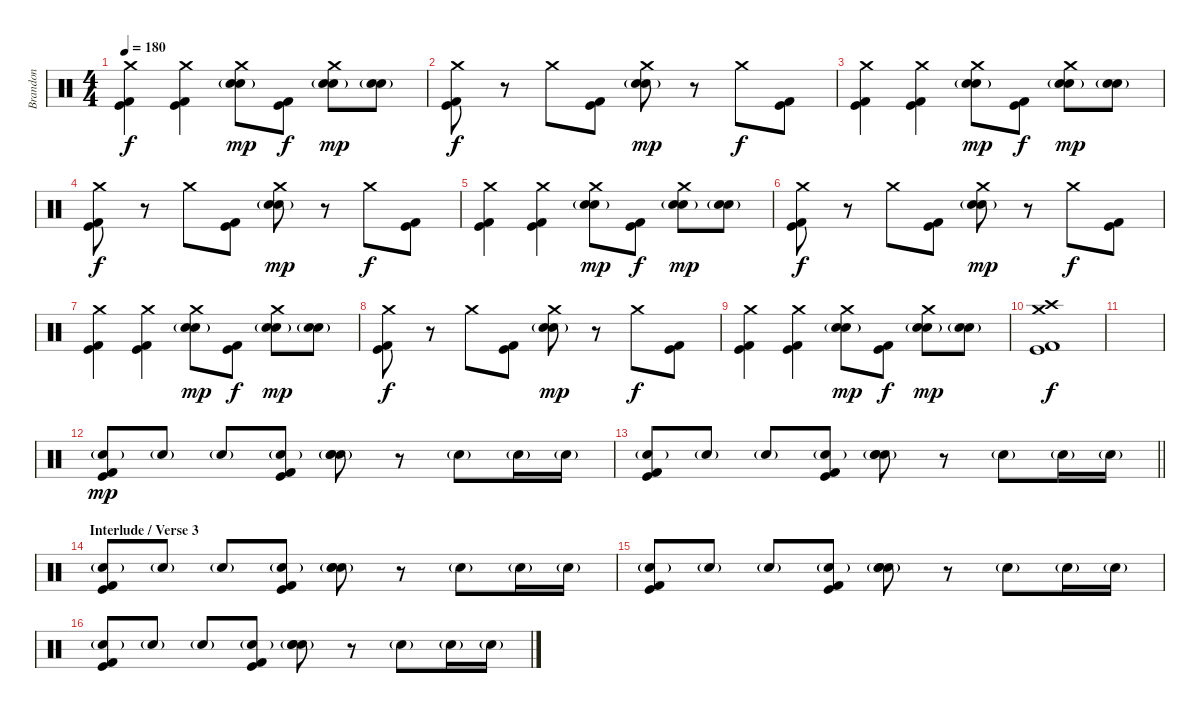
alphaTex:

\track ("Brandon" "Brandon") {instrument percussion}
\staff {score}
\articulation defaults
\ts (4 4)
\tempo 180
\clef neutral
\ks c
("Crash medium (hit)" "Kick (hit)" "Kick (hit) 2").4{dy f} ("Crash medium (hit)" "Kick (hit)" "Kick (hit) 2").4 ("Crash medium (hit)" "Snare (hit) 2" "Electric Snare (hit)"{g}).8{dy mp} ("Kick (hit)" "Kick (hit) 2").8{dy f} ("Crash medium (hit)" "Snare (hit) 2" "Electric Snare (hit)"{g}).8{dy mp} ("Snare (hit) 2" "Electric Snare (hit)"{g}).8 |
("Crash medium (hit)" "Kick (hit)" "Kick (hit) 2").8{dy f} r.8 "Crash medium (hit)".8 ("Kick (hit)" "Kick (hit) 2").8 ("Crash medium (hit)" "Snare (hit) 2" "Electric Snare (hit)"{g}).8{dy mp} r.8 "Crash medium (hit)".8{dy f} ("Kick (hit)" "Kick (hit) 2").8 |
("Crash medium (hit)" "Kick (hit)" "Kick (hit) 2").4 ("Crash medium (hit)" "Kick (hit)" "Kick (hit) 2").4 ("Crash medium (hit)" "Snare (hit) 2" "Electric Snare (hit)"{g}).8{dy mp} ("Kick (hit)" "Kick (hit) 2").8{dy f} ("Crash medium (hit)" "Snare (hit) 2" "Electric Snare (hit)"{g}).8{dy mp} ("Snare (hit) 2" "Electric Snare (hit)"{g}).8 |
("Crash medium (hit)" "Kick (hit)" "Kick (hit) 2").8{dy f} r.8 "Crash medium (hit)".8 ("Kick (hit)" "Kick (hit) 2").8 ("Crash medium (hit)" "Snare (hit) 2" "Electric Snare (hit)"{g}).8{dy mp} r.8 "Crash medium (hit)".8{dy f} ("Kick (hit)" "Kick (hit) 2").8 |
("Crash medium (hit)" "Kick (hit)" "Kick (hit) 2").4 ("Crash medium (hit)" "Kick (hit)" "Kick (hit) 2").4 ("Crash medium (hit)" "Snare (hit) 2" "Electric Snare (hit)"{g}).8{dy mp} ("Kick (hit)" "Kick (hit) 2").8{dy f} ("Crash medium (hit)" "Snare (hit) 2" "Electric Snare (hit)"{g}).8{dy mp} ("Snare (hit) 2" "Electric Snare (hit)"{g}).8 |
("Crash medium (hit)" "Kick (hit)" "Kick (hit) 2").8{dy f} r.8 "Crash medium (hit)".8 ("Kick (hit)" "Kick (hit) 2").8 ("Crash medium (hit)" "Snare (hit) 2" "Electric Snare (hit)"{g}).8{dy mp} r.8 "Crash medium (hit)".8{dy f} ("Kick (hit)" "Kick (hit) 2").8 |
("Crash medium (hit)" "Kick (hit)" "Kick (hit) 2").4 ("Crash medium (hit)" "Kick (hit)" "Kick (hit) 2").4 ("Crash medium (hit)" "Snare (hit) 2" "Electric Snare (hit)"{g}).8{dy mp} ("Kick (hit)" "Kick (hit) 2").8{dy f} ("Crash medium (hit)" "Snare (hit) 2" "Electric Snare (hit)"{g}).8{dy mp} ("Snare (hit) 2" "Electric Snare (hit)"{g}).8 |
("Crash medium (hit)" "Kick (hit)" "Kick (hit) 2").8{dy f} r.8 "Crash medium (hit)".8 ("Kick (hit)" "Kick (hit) 2").8 ("Crash medium (hit)" "Snare (hit) 2" "Electric Snare (hit)"{g}).8{dy mp} r.8 "Crash medium (hit)".8{dy f} ("Kick (hit)" "Kick (hit) 2").8 |
("Crash medium (hit)" "Kick (hit)" "Kick (hit) 2").4 ("Crash medium (hit)" "Kick (hit)" "Kick (hit) 2").4 ("Crash medium (hit)" "Snare (hit) 2" "Electric Snare (hit)"{g}).8{dy mp} ("Kick (hit)" "Kick (hit) 2").8{dy f} ("Crash medium (hit)" "Snare (hit) 2" "Electric Snare (hit)"{g}).8{dy mp} ("Snare (hit) 2" "Electric Snare (hit)"{g}).8 |
("Crash high (hit)" "Crash medium (hit)" "Kick (hit)" "Kick (hit) 2").1{dy f} |
|
("Snare (hit) 2"{g} "Kick (hit)" "Kick (hit) 2").8{dy mp volume 0} "Snare (hit) 2"{g}.8 "Snare (hit) 2"{g}.8 ("Snare (hit) 2"{g} "Kick (hit)" "Kick (hit) 2").8 ("Electric Snare (hit)" "Snare (hit) 2" "Snare (hit) 2"{g}).8 r.8 "Snare (hit) 2"{g}.8 "Snare (hit) 2"{g}.16 "Snare (hit) 2"{g}.16 |
\barLineRight lightlight
("Snare (hit) 2"{g} "Kick (hit)" "Kick (hit) 2").8{volume 9} "Snare (hit) 2"{g}.8 "Snare (hit) 2"{g}.8 ("Snare (hit) 2"{g} "Kick (hit)" "Kick (hit) 2").8 ("Electric Snare (hit)" "Snare (hit) 2" "Snare (hit) 2"{g}).8 r.8 "Snare (hit) 2"{g}.8 "Snare (hit) 2"{g}.16 "Snare (hit) 2"{g}.16 |
\section ("" "Interlude / Verse 3")
("Snare (hit) 2"{g} "Kick (hit)" "Kick (hit) 2").8 "Snare (hit) 2"{g}.8 "Snare (hit) 2"{g}.8 ("Snare (hit) 2"{g} "Kick (hit)" "Kick (hit) 2").8 ("Electric Snare (hit)" "Snare (hit) 2" "Snare (hit) 2"{g}).8 r.8 "Snare (hit) 2"{g}.8 "Snare (hit) 2"{g}.16 "Snare (hit) 2"{g}.16 |
("Snare (hit) 2"{g} "Kick (hit)" "Kick (hit) 2").8 "Snare (hit) 2"{g}.8 "Snare (hit) 2"{g}.8 ("Snare (hit) 2"{g} "Kick (hit)" "Kick (hit) 2").8 ("Electric Snare (hit)" "Snare (hit) 2" "Snare (hit) 2"{g}).8 r.8 "Snare (hit) 2"{g}.8 "Snare (hit) 2"{g}.16 "Snare (hit) 2"{g}.16 |
("Snare (hit) 2"{g} "Kick (hit)" "Kick (hit) 2").8 "Snare (hit) 2"{g}.8 "Snare (hit) 2"{g}.8 ("Snare (hit) 2"{g} "Kick (hit)" "Kick (hit) 2").8 ("Electric Snare (hit)" "Snare (hit) 2" "Snare (hit) 2"{g}).8 r.8 "Snare (hit) 2"{g}.8 "Snare (hit) 2"{g}.16 "Snare (hit) 2"{g}.16
